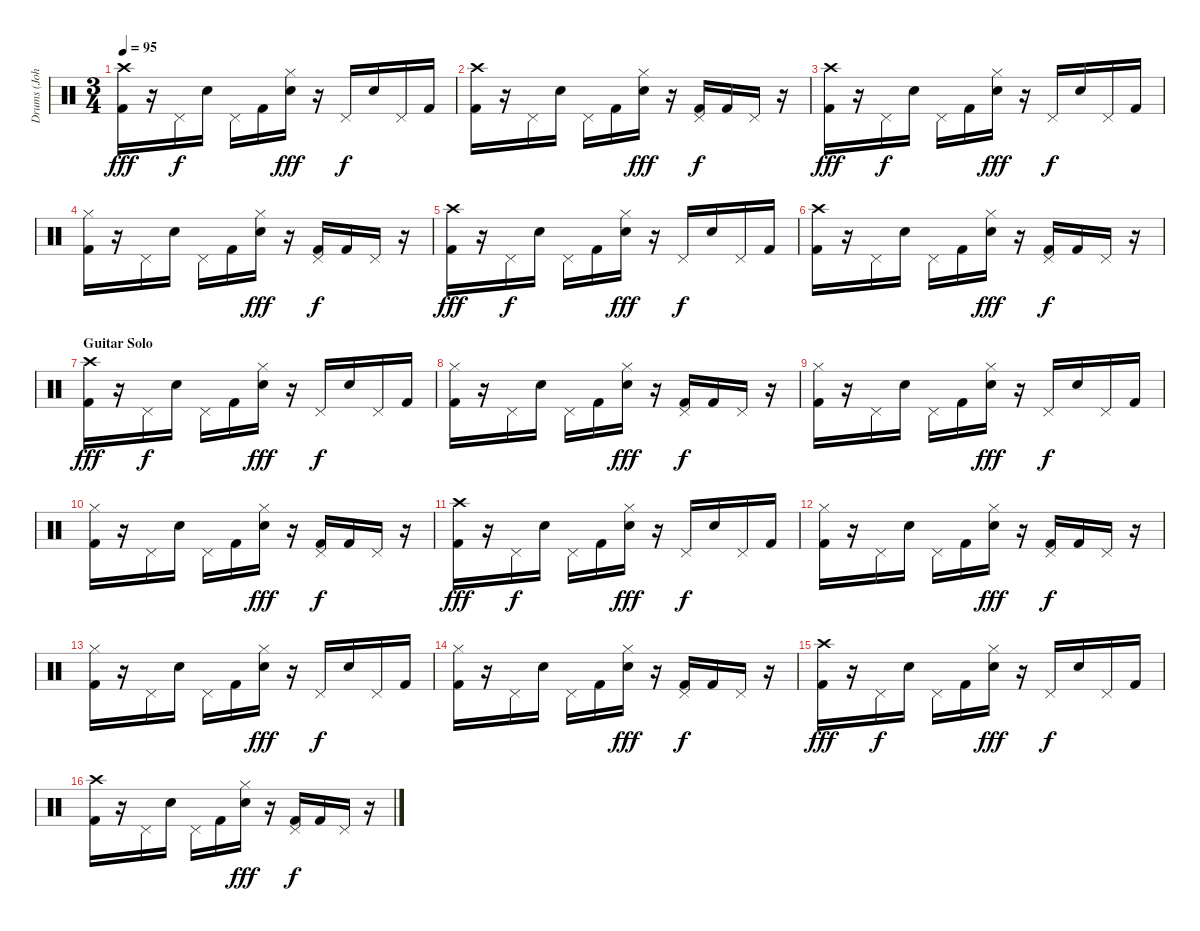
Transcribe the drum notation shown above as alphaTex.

\track ("Drums (John Otto)" "Drums (Joh") {instrument percussion}
\staff {score}
\articulation defaults
\ts (3 4)
\tempo 95
\clef neutral
\ks c
("Crash high (hit)" "Kick (hit) 2").16{dy fff} r.16 "Pedal Hi-Hat (hit)".16{dy f} "Electric Snare (hit)".16 "Pedal Hi-Hat (hit)".16 "Kick (hit) 2".16 ("Hi-Hat (closed)" "Electric Snare (hit)").16{dy fff} r.16 "Pedal Hi-Hat (hit)".16{dy f} "Electric Snare (hit)".16 "Pedal Hi-Hat (hit)".16 "Kick (hit) 2".16 |
("Crash high (hit)" "Kick (hit) 2").16 r.16 "Pedal Hi-Hat (hit)".16 "Electric Snare (hit)".16 "Pedal Hi-Hat (hit)".16 "Kick (hit) 2".16 ("Hi-Hat (closed)" "Electric Snare (hit)").16{dy fff} r.16 ("Pedal Hi-Hat (hit)" "Kick (hit) 2").16{dy f} "Kick (hit) 2".16 "Pedal Hi-Hat (hit)".16 r.16 |
("Crash high (hit)" "Kick (hit) 2").16{dy fff} r.16 "Pedal Hi-Hat (hit)".16{dy f} "Electric Snare (hit)".16 "Pedal Hi-Hat (hit)".16 "Kick (hit) 2".16 ("Hi-Hat (closed)" "Electric Snare (hit)").16{dy fff} r.16 "Pedal Hi-Hat (hit)".16{dy f} "Electric Snare (hit)".16 "Pedal Hi-Hat (hit)".16 "Kick (hit) 2".16 |
("Hi-Hat (closed)" "Kick (hit) 2").16 r.16 "Pedal Hi-Hat (hit)".16 "Electric Snare (hit)".16 "Pedal Hi-Hat (hit)".16 "Kick (hit) 2".16 ("Hi-Hat (closed)" "Electric Snare (hit)").16{dy fff} r.16 ("Pedal Hi-Hat (hit)" "Kick (hit) 2").16{dy f} "Kick (hit) 2".16 "Pedal Hi-Hat (hit)".16 r.16 |
("Crash high (hit)" "Kick (hit) 2").16{dy fff} r.16 "Pedal Hi-Hat (hit)".16{dy f} "Electric Snare (hit)".16 "Pedal Hi-Hat (hit)".16 "Kick (hit) 2".16 ("Hi-Hat (closed)" "Electric Snare (hit)").16{dy fff} r.16 "Pedal Hi-Hat (hit)".16{dy f} "Electric Snare (hit)".16 "Pedal Hi-Hat (hit)".16 "Kick (hit) 2".16 |
("Crash high (hit)" "Kick (hit) 2").16 r.16 "Pedal Hi-Hat (hit)".16 "Electric Snare (hit)".16 "Pedal Hi-Hat (hit)".16 "Kick (hit) 2".16 ("Hi-Hat (closed)" "Electric Snare (hit)").16{dy fff} r.16 ("Pedal Hi-Hat (hit)" "Kick (hit) 2").16{dy f} "Kick (hit) 2".16 "Pedal Hi-Hat (hit)".16 r.16 |
\section ("" "Guitar Solo")
("Crash high (hit)" "Kick (hit) 2").16{dy fff} r.16 "Pedal Hi-Hat (hit)".16{dy f} "Electric Snare (hit)".16 "Pedal Hi-Hat (hit)".16 "Kick (hit) 2".16 ("Hi-Hat (closed)" "Electric Snare (hit)").16{dy fff} r.16 "Pedal Hi-Hat (hit)".16{dy f} "Electric Snare (hit)".16 "Pedal Hi-Hat (hit)".16 "Kick (hit) 2".16 |
("Hi-Hat (closed)" "Kick (hit) 2").16 r.16 "Pedal Hi-Hat (hit)".16 "Electric Snare (hit)".16 "Pedal Hi-Hat (hit)".16 "Kick (hit) 2".16 ("Hi-Hat (closed)" "Electric Snare (hit)").16{dy fff} r.16 ("Pedal Hi-Hat (hit)" "Kick (hit) 2").16{dy f} "Kick (hit) 2".16 "Pedal Hi-Hat (hit)".16 r.16 |
("Hi-Hat (closed)" "Kick (hit) 2").16 r.16 "Pedal Hi-Hat (hit)".16 "Electric Snare (hit)".16 "Pedal Hi-Hat (hit)".16 "Kick (hit) 2".16 ("Hi-Hat (closed)" "Electric Snare (hit)").16{dy fff} r.16 "Pedal Hi-Hat (hit)".16{dy f} "Electric Snare (hit)".16 "Pedal Hi-Hat (hit)".16 "Kick (hit) 2".16 |
("Hi-Hat (closed)" "Kick (hit) 2").16 r.16 "Pedal Hi-Hat (hit)".16 "Electric Snare (hit)".16 "Pedal Hi-Hat (hit)".16 "Kick (hit) 2".16 ("Hi-Hat (closed)" "Electric Snare (hit)").16{dy fff} r.16 ("Pedal Hi-Hat (hit)" "Kick (hit) 2").16{dy f} "Kick (hit) 2".16 "Pedal Hi-Hat (hit)".16 r.16 |
("Crash high (hit)" "Kick (hit) 2").16{dy fff} r.16 "Pedal Hi-Hat (hit)".16{dy f} "Electric Snare (hit)".16 "Pedal Hi-Hat (hit)".16 "Kick (hit) 2".16 ("Hi-Hat (closed)" "Electric Snare (hit)").16{dy fff} r.16 "Pedal Hi-Hat (hit)".16{dy f} "Electric Snare (hit)".16 "Pedal Hi-Hat (hit)".16 "Kick (hit) 2".16 |
("Hi-Hat (closed)" "Kick (hit) 2").16 r.16 "Pedal Hi-Hat (hit)".16 "Electric Snare (hit)".16 "Pedal Hi-Hat (hit)".16 "Kick (hit) 2".16 ("Hi-Hat (closed)" "Electric Snare (hit)").16{dy fff} r.16 ("Pedal Hi-Hat (hit)" "Kick (hit) 2").16{dy f} "Kick (hit) 2".16 "Pedal Hi-Hat (hit)".16 r.16 |
("Hi-Hat (closed)" "Kick (hit) 2").16 r.16 "Pedal Hi-Hat (hit)".16 "Electric Snare (hit)".16 "Pedal Hi-Hat (hit)".16 "Kick (hit) 2".16 ("Hi-Hat (closed)" "Electric Snare (hit)").16{dy fff} r.16 "Pedal Hi-Hat (hit)".16{dy f} "Electric Snare (hit)".16 "Pedal Hi-Hat (hit)".16 "Kick (hit) 2".16 |
("Hi-Hat (closed)" "Kick (hit) 2").16 r.16 "Pedal Hi-Hat (hit)".16 "Electric Snare (hit)".16 "Pedal Hi-Hat (hit)".16 "Kick (hit) 2".16 ("Hi-Hat (closed)" "Electric Snare (hit)").16{dy fff} r.16 ("Pedal Hi-Hat (hit)" "Kick (hit) 2").16{dy f} "Kick (hit) 2".16 "Pedal Hi-Hat (hit)".16 r.16 |
("Crash high (hit)" "Kick (hit) 2").16{dy fff} r.16 "Pedal Hi-Hat (hit)".16{dy f} "Electric Snare (hit)".16 "Pedal Hi-Hat (hit)".16 "Kick (hit) 2".16 ("Hi-Hat (closed)" "Electric Snare (hit)").16{dy fff} r.16 "Pedal Hi-Hat (hit)".16{dy f} "Electric Snare (hit)".16 "Pedal Hi-Hat (hit)".16 "Kick (hit) 2".16 |
("Crash high (hit)" "Kick (hit) 2").16 r.16 "Pedal Hi-Hat (hit)".16 "Electric Snare (hit)".16 "Pedal Hi-Hat (hit)".16 "Kick (hit) 2".16 ("Hi-Hat (closed)" "Electric Snare (hit)").16{dy fff} r.16 ("Pedal Hi-Hat (hit)" "Kick (hit) 2").16{dy f} "Kick (hit) 2".16 "Pedal Hi-Hat (hit)".16 r.16
